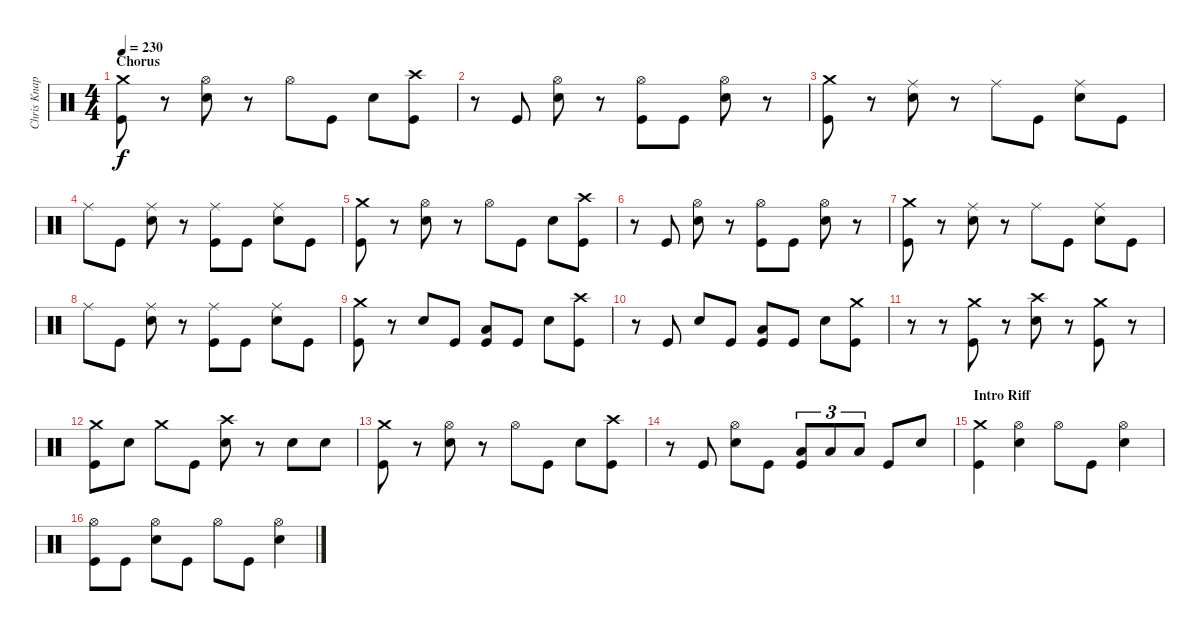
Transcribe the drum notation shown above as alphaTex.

\track ("Chris Knapp" "Chris Knap") {instrument percussion}
\staff {score}
\articulation defaults
\ts (4 4)
\section ("" "Chorus")
\tempo 230
\clef neutral
\ks c
("Crash medium (hit)" "Kick (hit)").8{dy f} r.8 ("Hi-Hat (open)" "Electric Snare (hit)").8 r.8 "Hi-Hat (open)".8 "Kick (hit)".8 "Electric Snare (hit)".8 ("Crash high (hit)" "Kick (hit)").8 |
r.8 "Kick (hit)".8 ("Hi-Hat (open)" "Electric Snare (hit)").8 r.8 ("Hi-Hat (open)" "Kick (hit)").8 "Kick (hit)".8 ("Hi-Hat (open)" "Electric Snare (hit)").8 r.8 |
("Crash medium (hit)" "Kick (hit)").8 r.8 ("Ride (middle)" "Electric Snare (hit)").8 r.8 "Ride (middle)".8 "Kick (hit)".8 ("Ride (middle)" "Electric Snare (hit)").8 "Kick (hit)".8 |
"Ride (middle)".8 "Kick (hit)".8 ("Ride (middle)" "Electric Snare (hit)").8 r.8 ("Ride (middle)" "Kick (hit)").8 "Kick (hit)".8 ("Ride (middle)" "Electric Snare (hit)").8 "Kick (hit)".8 |
("Crash medium (hit)" "Kick (hit)").8 r.8 ("Hi-Hat (open)" "Electric Snare (hit)").8 r.8 "Hi-Hat (open)".8 "Kick (hit)".8 "Electric Snare (hit)".8 ("Crash high (hit)" "Kick (hit)").8 |
r.8 "Kick (hit)".8 ("Hi-Hat (open)" "Electric Snare (hit)").8 r.8 ("Hi-Hat (open)" "Kick (hit)").8 "Kick (hit)".8 ("Hi-Hat (open)" "Electric Snare (hit)").8 r.8 |
("Crash medium (hit)" "Kick (hit)").8 r.8 ("Ride (middle)" "Electric Snare (hit)").8 r.8 "Ride (middle)".8 "Kick (hit)".8 ("Ride (middle)" "Electric Snare (hit)").8 "Kick (hit)".8 |
"Ride (middle)".8 "Kick (hit)".8 ("Ride (middle)" "Electric Snare (hit)").8 r.8 ("Ride (middle)" "Kick (hit)").8 "Kick (hit)".8 ("Ride (middle)" "Electric Snare (hit)").8 "Kick (hit)".8 |
("Crash medium (hit)" "Kick (hit)").8 r.8 "Electric Snare (hit)".8 "Kick (hit)".8 ("Low Floor Tom (hit)" "Kick (hit)").8 "Kick (hit)".8 "Electric Snare (hit)".8 ("Crash high (hit)" "Kick (hit)").8 |
r.8 "Kick (hit)".8 "Electric Snare (hit)".8 "Kick (hit)".8 ("Low Floor Tom (hit)" "Kick (hit)").8 "Kick (hit)".8 "Electric Snare (hit)".8 ("Crash medium (hit)" "Kick (hit)").8 |
r.8 r.8 ("Crash medium (hit)" "Kick (hit)").8 r.8 ("Crash high (hit)" "Electric Snare (hit)").8 r.8 ("Crash medium (hit)" "Kick (hit)").8 r.8 |
("Crash medium (hit)" "Kick (hit)").8 "Electric Snare (hit)".8 "Crash medium (hit)".8 "Kick (hit)".8 ("Crash high (hit)" "Electric Snare (hit)").8 r.8 "Electric Snare (hit)".8 "Electric Snare (hit)".8 |
("Crash medium (hit)" "Kick (hit)").8 r.8 ("Hi-Hat (open)" "Electric Snare (hit)").8 r.8 "Hi-Hat (open)".8 "Kick (hit)".8 "Electric Snare (hit)".8 ("Crash high (hit)" "Kick (hit)").8 |
r.8 "Kick (hit)".8 ("Hi-Hat (open)" "Electric Snare (hit)").8 "Kick (hit)".8 ("Low Floor Tom (hit)" "Kick (hit)").8{tu (3 2)} "Low Floor Tom (hit)".8{tu (3 2)} "Low Floor Tom (hit)".8{tu (3 2)} "Kick (hit)".8 "Electric Snare (hit)".8 |
\section ("" "Intro Riff")
("Crash medium (hit)" "Kick (hit)").4 ("Hi-Hat (open)" "Electric Snare (hit)").4 "Hi-Hat (open)".8 "Kick (hit)".8 ("Hi-Hat (open)" "Electric Snare (hit)").4 |
("Hi-Hat (open)" "Kick (hit)").8 "Kick (hit)".8 ("Hi-Hat (open)" "Electric Snare (hit)").8 "Kick (hit)".8 "Hi-Hat (open)".8 "Kick (hit)".8 ("Hi-Hat (open)" "Electric Snare (hit)").4
